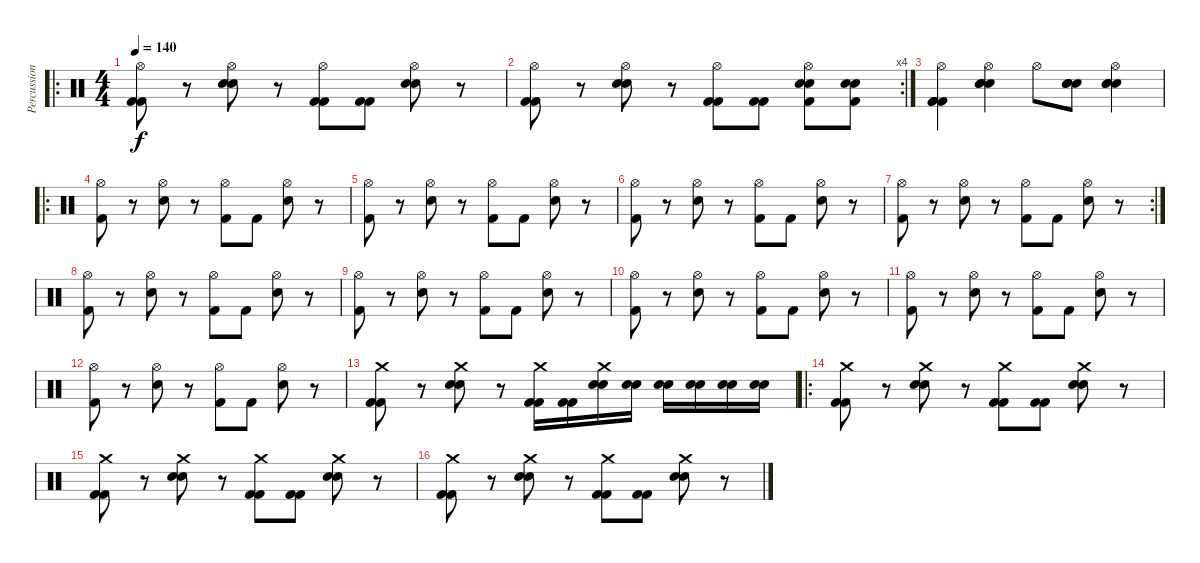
\track ("Percussions" "Percussion") {instrument percussion}
\staff {score}
\articulation defaults
\ro
\ts (4 4)
\tempo 140
\clef neutral
\ks c
("Hi-Hat (open)" "Kick (hit) 2" "Kick (hit) 2").8{dy f} r.8 ("Hi-Hat (open)" "Snare (hit) 2" "Snare (hit) 2").8 r.8 ("Hi-Hat (open)" "Kick (hit) 2" "Kick (hit) 2").8 ("Kick (hit) 2" "Kick (hit) 2").8 ("Hi-Hat (open)" "Snare (hit) 2" "Snare (hit) 2").8 r.8 |
\rc 4
("Hi-Hat (open)" "Kick (hit) 2" "Kick (hit) 2").8 r.8 ("Hi-Hat (open)" "Snare (hit) 2" "Snare (hit) 2").8 r.8 ("Hi-Hat (open)" "Kick (hit) 2" "Kick (hit) 2").8 ("Kick (hit) 2" "Kick (hit) 2").8 ("Hi-Hat (open)" "Snare (hit) 2" "Snare (hit) 2" "Kick (hit) 2").8 ("Snare (hit) 2" "Snare (hit) 2" "Kick (hit) 2").8 |
("Hi-Hat (open)" "Kick (hit) 2" "Kick (hit) 2" "Kick (hit) 2").4 ("Hi-Hat (open)" "Snare (hit) 2" "Snare (hit) 2" "Snare (hit) 2").4 "Hi-Hat (open)".8 ("Snare (hit) 2" "Snare (hit) 2" "Snare (hit) 2").8 ("Hi-Hat (open)" "Snare (hit) 2" "Snare (hit) 2" "Snare (hit) 2").4 |
\ro
("Hi-Hat (open)" "Kick (hit) 2").8 r.8 ("Hi-Hat (open)" "Snare (hit) 2").8 r.8 ("Hi-Hat (open)" "Kick (hit) 2").8 "Kick (hit) 2".8 ("Hi-Hat (open)" "Snare (hit) 2").8 r.8 |
("Hi-Hat (open)" "Kick (hit) 2").8 r.8 ("Hi-Hat (open)" "Snare (hit) 2").8 r.8 ("Hi-Hat (open)" "Kick (hit) 2").8 "Kick (hit) 2".8 ("Hi-Hat (open)" "Snare (hit) 2").8 r.8 |
("Hi-Hat (open)" "Kick (hit) 2").8 r.8 ("Hi-Hat (open)" "Snare (hit) 2").8 r.8 ("Hi-Hat (open)" "Kick (hit) 2").8 "Kick (hit) 2".8 ("Hi-Hat (open)" "Snare (hit) 2").8 r.8 |
\rc 2
("Hi-Hat (open)" "Kick (hit) 2").8 r.8 ("Hi-Hat (open)" "Snare (hit) 2").8 r.8 ("Hi-Hat (open)" "Kick (hit) 2").8 "Kick (hit) 2".8 ("Hi-Hat (open)" "Snare (hit) 2").8 r.8 |
("Hi-Hat (open)" "Kick (hit) 2").8 r.8 ("Hi-Hat (open)" "Snare (hit) 2").8 r.8 ("Hi-Hat (open)" "Kick (hit) 2").8 "Kick (hit) 2".8 ("Hi-Hat (open)" "Snare (hit) 2").8 r.8 |
("Hi-Hat (open)" "Kick (hit) 2").8 r.8 ("Hi-Hat (open)" "Snare (hit) 2").8 r.8 ("Hi-Hat (open)" "Kick (hit) 2").8 "Kick (hit) 2".8 ("Hi-Hat (open)" "Snare (hit) 2").8 r.8 |
("Hi-Hat (open)" "Kick (hit) 2").8 r.8 ("Hi-Hat (open)" "Snare (hit) 2").8 r.8 ("Hi-Hat (open)" "Kick (hit) 2").8 "Kick (hit) 2".8 ("Hi-Hat (open)" "Snare (hit) 2").8 r.8 |
("Hi-Hat (open)" "Kick (hit) 2").8 r.8 ("Hi-Hat (open)" "Snare (hit) 2").8 r.8 ("Hi-Hat (open)" "Kick (hit) 2").8 "Kick (hit) 2".8 ("Hi-Hat (open)" "Snare (hit) 2").8 r.8 |
("Hi-Hat (open)" "Kick (hit) 2").8 r.8 ("Hi-Hat (open)" "Snare (hit) 2").8 r.8 ("Hi-Hat (open)" "Kick (hit) 2").8 "Kick (hit) 2".8 ("Hi-Hat (open)" "Snare (hit) 2").8 r.8 |
("Crash medium (hit)" "Kick (hit) 2" "Kick (hit) 2").8 r.8 ("Crash medium (hit)" "Snare (hit) 2" "Snare (hit) 2").8 r.8 ("Crash medium (hit)" "Kick (hit) 2" "Kick (hit) 2").16 ("Kick (hit) 2" "Kick (hit) 2").16 ("Crash medium (hit)" "Snare (hit) 2" "Snare (hit) 2").16 ("Snare (hit) 2" "Snare (hit) 2").16 ("Snare (hit) 2" "Snare (hit) 2").16 ("Snare (hit) 2" "Snare (hit) 2").16 ("Snare (hit) 2" "Snare (hit) 2").16 ("Snare (hit) 2" "Snare (hit) 2").16 |
\ro
("Crash medium (hit)" "Kick (hit) 2" "Kick (hit) 2").8 r.8 ("Crash medium (hit)" "Snare (hit) 2" "Snare (hit) 2").8 r.8 ("Crash medium (hit)" "Kick (hit) 2" "Kick (hit) 2").8 ("Kick (hit) 2" "Kick (hit) 2").8 ("Crash medium (hit)" "Snare (hit) 2" "Snare (hit) 2").8 r.8 |
("Crash medium (hit)" "Kick (hit) 2" "Kick (hit) 2").8 r.8 ("Crash medium (hit)" "Snare (hit) 2" "Snare (hit) 2").8 r.8 ("Crash medium (hit)" "Kick (hit) 2" "Kick (hit) 2").8 ("Kick (hit) 2" "Kick (hit) 2").8 ("Crash medium (hit)" "Snare (hit) 2" "Snare (hit) 2").8 r.8 |
("Crash medium (hit)" "Kick (hit) 2" "Kick (hit) 2").8 r.8 ("Crash medium (hit)" "Snare (hit) 2" "Snare (hit) 2").8 r.8 ("Crash medium (hit)" "Kick (hit) 2" "Kick (hit) 2").8 ("Kick (hit) 2" "Kick (hit) 2").8 ("Crash medium (hit)" "Snare (hit) 2" "Snare (hit) 2").8 r.8
